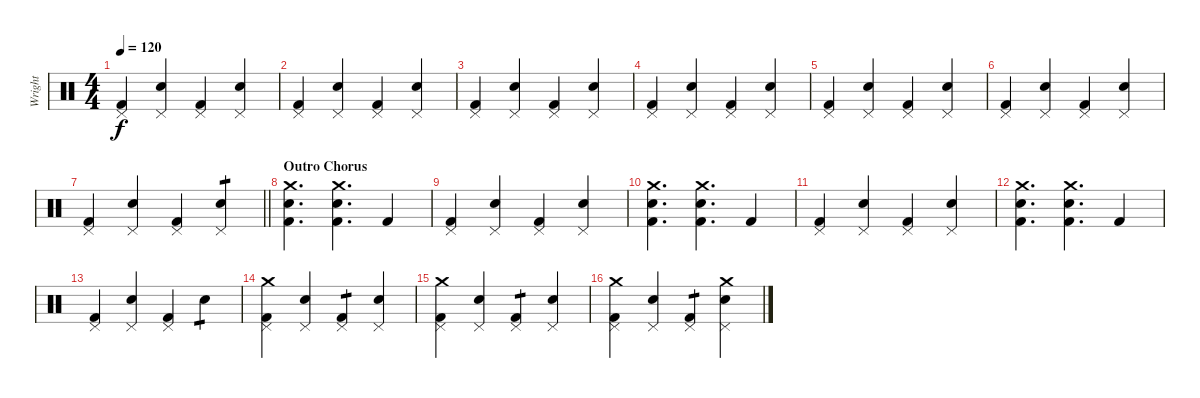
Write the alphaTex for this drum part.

\track ("Wright" "Wright") {instrument percussion}
\staff {score}
\articulation defaults
\ts (4 4)
\tempo 120
\clef neutral
\ks c
("Kick (hit) 2" "Pedal Hi-Hat (hit)").4{dy f} ("Snare (hit) 2" "Pedal Hi-Hat (hit)").4 ("Kick (hit) 2" "Pedal Hi-Hat (hit)").4 ("Snare (hit) 2" "Pedal Hi-Hat (hit)").4 |
("Kick (hit) 2" "Pedal Hi-Hat (hit)").4 ("Snare (hit) 2" "Pedal Hi-Hat (hit)").4 ("Kick (hit) 2" "Pedal Hi-Hat (hit)").4 ("Snare (hit) 2" "Pedal Hi-Hat (hit)").4 |
("Kick (hit) 2" "Pedal Hi-Hat (hit)").4 ("Snare (hit) 2" "Pedal Hi-Hat (hit)").4 ("Kick (hit) 2" "Pedal Hi-Hat (hit)").4 ("Snare (hit) 2" "Pedal Hi-Hat (hit)").4 |
("Kick (hit) 2" "Pedal Hi-Hat (hit)").4 ("Snare (hit) 2" "Pedal Hi-Hat (hit)").4 ("Kick (hit) 2" "Pedal Hi-Hat (hit)").4 ("Snare (hit) 2" "Pedal Hi-Hat (hit)").4 |
("Kick (hit) 2" "Pedal Hi-Hat (hit)").4 ("Snare (hit) 2" "Pedal Hi-Hat (hit)").4 ("Kick (hit) 2" "Pedal Hi-Hat (hit)").4 ("Snare (hit) 2" "Pedal Hi-Hat (hit)").4 |
("Kick (hit) 2" "Pedal Hi-Hat (hit)").4 ("Snare (hit) 2" "Pedal Hi-Hat (hit)").4 ("Kick (hit) 2" "Pedal Hi-Hat (hit)").4 ("Snare (hit) 2" "Pedal Hi-Hat (hit)").4 |
\barLineRight lightlight
("Kick (hit) 2" "Pedal Hi-Hat (hit)").4 ("Snare (hit) 2" "Pedal Hi-Hat (hit)").4 ("Kick (hit) 2" "Pedal Hi-Hat (hit)").4 ("Snare (hit) 2" "Pedal Hi-Hat (hit)").4{tp 1} |
\section ("" "Outro Chorus")
("Crash medium (hit)" "Snare (hit) 2" "Kick (hit) 2").4{d} ("Crash medium (hit)" "Snare (hit) 2" "Kick (hit) 2").4{d} "Kick (hit) 2".4 |
("Kick (hit) 2" "Pedal Hi-Hat (hit)").4 ("Snare (hit) 2" "Pedal Hi-Hat (hit)").4 ("Kick (hit) 2" "Pedal Hi-Hat (hit)").4 ("Snare (hit) 2" "Pedal Hi-Hat (hit)").4 |
("Crash medium (hit)" "Snare (hit) 2" "Kick (hit) 2").4{d} ("Crash medium (hit)" "Snare (hit) 2" "Kick (hit) 2").4{d} "Kick (hit) 2".4 |
("Kick (hit) 2" "Pedal Hi-Hat (hit)").4 ("Snare (hit) 2" "Pedal Hi-Hat (hit)").4 ("Kick (hit) 2" "Pedal Hi-Hat (hit)").4 ("Snare (hit) 2" "Pedal Hi-Hat (hit)").4 |
("Crash medium (hit)" "Snare (hit) 2" "Kick (hit) 2").4{d} ("Crash medium (hit)" "Snare (hit) 2" "Kick (hit) 2").4{d} "Kick (hit) 2".4 |
("Kick (hit) 2" "Pedal Hi-Hat (hit)").4 ("Snare (hit) 2" "Pedal Hi-Hat (hit)").4 ("Kick (hit) 2" "Pedal Hi-Hat (hit)").4 "Snare (hit) 2".4{tp 1} |
("Crash medium (hit)" "Kick (hit) 2" "Pedal Hi-Hat (hit)").4 ("Snare (hit) 2" "Pedal Hi-Hat (hit)").4 ("Kick (hit) 2" "Pedal Hi-Hat (hit)").4{tp 1} ("Snare (hit) 2" "Pedal Hi-Hat (hit)").4 |
("Crash medium (hit)" "Kick (hit) 2" "Pedal Hi-Hat (hit)").4 ("Snare (hit) 2" "Pedal Hi-Hat (hit)").4 ("Kick (hit) 2" "Pedal Hi-Hat (hit)").4{tp 1} ("Snare (hit) 2" "Pedal Hi-Hat (hit)").4 |
("Crash medium (hit)" "Kick (hit) 2" "Pedal Hi-Hat (hit)").4 ("Snare (hit) 2" "Pedal Hi-Hat (hit)").4 ("Kick (hit) 2" "Pedal Hi-Hat (hit)").4{tp 1} ("Snare (hit) 2" "Pedal Hi-Hat (hit)" "Crash medium (hit)").4
